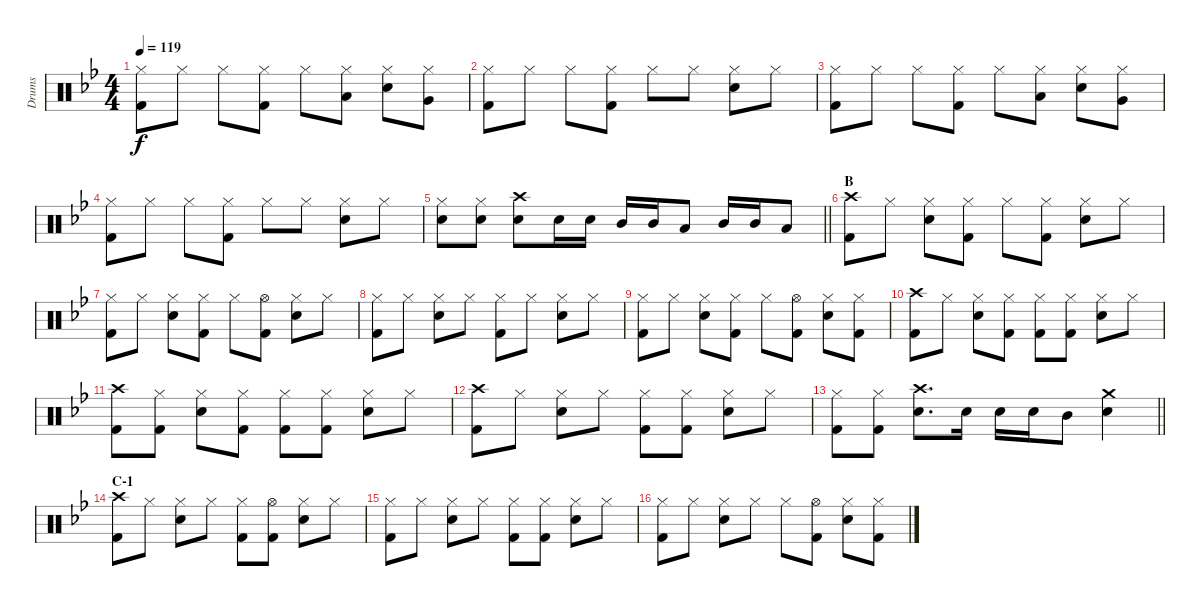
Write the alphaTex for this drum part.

\track ("Drums" "Drums") {instrument percussion}
\staff {score}
\articulation defaults
\ts (4 4)
\tempo 119
\clef neutral
\ks bb
("Hi-Hat (closed)" "Kick (hit) 2").8{dy f} "Hi-Hat (closed)".8 "Hi-Hat (closed)".8 ("Hi-Hat (closed)" "Kick (hit) 2").8 "Hi-Hat (closed)".8 ("Low Tom (hit)" "Hi-Hat (closed)").8 ("Hi-Hat (closed)" "Snare (hit) 2").8 ("Very Low Tom (hit)" "Hi-Hat (closed)").8 |
("Hi-Hat (closed)" "Kick (hit) 2").8 "Hi-Hat (closed)".8 "Hi-Hat (closed)".8 ("Hi-Hat (closed)" "Kick (hit) 2").8 "Hi-Hat (closed)".8 "Hi-Hat (closed)".8 ("Hi-Hat (closed)" "Snare (hit) 2").8 "Hi-Hat (closed)".8 |
("Hi-Hat (closed)" "Kick (hit) 2").8 "Hi-Hat (closed)".8 "Hi-Hat (closed)".8 ("Hi-Hat (closed)" "Kick (hit) 2").8 "Hi-Hat (closed)".8 ("Low Tom (hit)" "Hi-Hat (closed)").8 ("Hi-Hat (closed)" "Snare (hit) 2").8 ("Very Low Tom (hit)" "Hi-Hat (closed)").8 |
("Hi-Hat (closed)" "Kick (hit) 2").8 "Hi-Hat (closed)".8 "Hi-Hat (closed)".8 ("Hi-Hat (closed)" "Kick (hit) 2").8 "Hi-Hat (closed)".8 "Hi-Hat (closed)".8 ("Hi-Hat (closed)" "Snare (hit) 2").8 "Hi-Hat (closed)".8 |
\barLineRight lightlight
("Hi-Hat (closed)" "Snare (hit) 2").8 ("Hi-Hat (closed)" "Snare (hit) 2").8 ("Crash high (hit)" "Snare (hit) 2").8 "Snare (hit) 2".16 "Snare (hit) 2".16 "Mid Tom (hit)".16 "Mid Tom (hit)".16 "Low Tom (hit)".8 "Mid Tom (hit)".16 "Mid Tom (hit)".16 "Low Tom (hit)".8 |
\section ("" "B")
("Crash high (hit)" "Kick (hit) 2").8 "Hi-Hat (closed)".8 ("Hi-Hat (closed)" "Snare (hit) 2").8 ("Hi-Hat (closed)" "Kick (hit) 2").8 "Hi-Hat (closed)".8 ("Hi-Hat (closed)" "Kick (hit) 2").8 ("Hi-Hat (closed)" "Snare (hit) 2").8 "Hi-Hat (closed)".8 |
("Hi-Hat (closed)" "Kick (hit) 2").8 "Hi-Hat (closed)".8 ("Hi-Hat (closed)" "Snare (hit) 2").8 ("Hi-Hat (closed)" "Kick (hit) 2").8 "Hi-Hat (closed)".8 ("Hi-Hat (open)" "Kick (hit) 2").8 ("Hi-Hat (closed)" "Snare (hit) 2").8 "Hi-Hat (closed)".8 |
("Hi-Hat (closed)" "Kick (hit) 2").8 "Hi-Hat (closed)".8 ("Hi-Hat (closed)" "Snare (hit) 2").8 "Hi-Hat (closed)".8 ("Hi-Hat (closed)" "Kick (hit) 2").8 "Hi-Hat (closed)".8 ("Hi-Hat (closed)" "Snare (hit) 2").8 "Hi-Hat (closed)".8 |
("Hi-Hat (closed)" "Kick (hit) 2").8 "Hi-Hat (closed)".8 ("Hi-Hat (closed)" "Snare (hit) 2").8 ("Hi-Hat (closed)" "Kick (hit) 2").8 "Hi-Hat (closed)".8 ("Hi-Hat (open)" "Kick (hit) 2").8 ("Hi-Hat (closed)" "Snare (hit) 2").8 ("Hi-Hat (closed)" "Kick (hit) 2").8 |
("Crash high (hit)" "Kick (hit) 2").8 "Hi-Hat (closed)".8 ("Hi-Hat (closed)" "Snare (hit) 2").8 ("Hi-Hat (closed)" "Kick (hit) 2").8 ("Hi-Hat (closed)" "Kick (hit) 2").8 ("Hi-Hat (closed)" "Kick (hit) 2").8 ("Hi-Hat (closed)" "Snare (hit) 2").8 "Hi-Hat (closed)".8 |
("Crash high (hit)" "Kick (hit) 2").8 ("Hi-Hat (closed)" "Kick (hit) 2").8 ("Hi-Hat (closed)" "Snare (hit) 2").8 ("Hi-Hat (closed)" "Kick (hit) 2").8 ("Hi-Hat (closed)" "Kick (hit) 2").8 ("Hi-Hat (closed)" "Kick (hit) 2").8 ("Hi-Hat (closed)" "Snare (hit) 2").8 "Hi-Hat (closed)".8 |
("Crash high (hit)" "Kick (hit) 2").8 "Hi-Hat (closed)".8 ("Hi-Hat (closed)" "Snare (hit) 2").8 "Hi-Hat (closed)".8 ("Hi-Hat (closed)" "Kick (hit) 2").8 ("Hi-Hat (closed)" "Kick (hit) 2").8 ("Hi-Hat (closed)" "Snare (hit) 2").8 "Hi-Hat (closed)".8 |
\barLineRight lightlight
("Hi-Hat (closed)" "Kick (hit) 2").8 ("Hi-Hat (closed)" "Kick (hit) 2").8 ("Crash high (hit)" "Snare (hit) 2").8{d} "Snare (hit) 2".16 "Snare (hit) 2".16 "Snare (hit) 2".16 "Mid Tom (hit)".8 ("Crash medium (hit)" "Snare (hit) 2").4 |
\section ("" "C-1")
("Crash high (hit)" "Kick (hit) 2").8 "Hi-Hat (closed)".8 ("Hi-Hat (closed)" "Snare (hit) 2").8 "Hi-Hat (closed)".8 ("Hi-Hat (closed)" "Kick (hit) 2").8 ("Hi-Hat (open)" "Kick (hit) 2").8 ("Hi-Hat (closed)" "Snare (hit) 2").8 "Hi-Hat (closed)".8 |
("Hi-Hat (closed)" "Kick (hit) 2").8 "Hi-Hat (closed)".8 ("Hi-Hat (closed)" "Snare (hit) 2").8 "Hi-Hat (closed)".8 ("Hi-Hat (closed)" "Kick (hit) 2").8 ("Hi-Hat (closed)" "Kick (hit) 2").8 ("Hi-Hat (closed)" "Snare (hit) 2").8 "Hi-Hat (closed)".8 |
("Hi-Hat (closed)" "Kick (hit) 2").8 "Hi-Hat (closed)".8 ("Hi-Hat (closed)" "Snare (hit) 2").8 "Hi-Hat (closed)".8 "Hi-Hat (closed)".8 ("Hi-Hat (open)" "Kick (hit) 2").8 ("Hi-Hat (closed)" "Snare (hit) 2").8 ("Hi-Hat (closed)" "Kick (hit) 2").8
